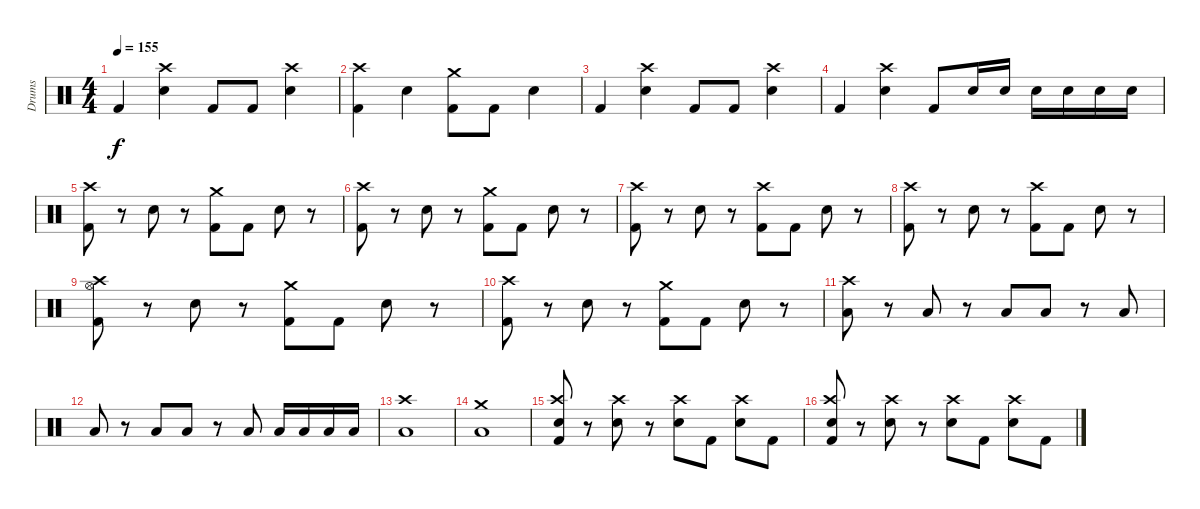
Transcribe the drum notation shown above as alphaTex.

\track ("Drums" "Drums") {instrument percussion}
\staff {score}
\articulation defaults
\ts (4 4)
\tempo 155
\clef neutral
\ks c "Kick (hit) 2".4{dy f}
("Crash high (hit)" "Snare (hit) 2").4 "Kick (hit) 2".8 "Kick (hit) 2".8 ("Crash high (hit)" "Snare (hit) 2").4 |
("Crash high (hit)" "Kick (hit) 2").4 "Snare (hit) 2".4 ("Crash medium (hit)" "Kick (hit) 2").8 "Kick (hit) 2".8 "Snare (hit) 2".4 |
"Kick (hit) 2".4 ("Crash high (hit)" "Snare (hit) 2").4 "Kick (hit) 2".8 "Kick (hit) 2".8 ("Crash high (hit)" "Snare (hit) 2").4 |
"Kick (hit) 2".4 ("Crash high (hit)" "Snare (hit) 2").4 "Kick (hit) 2".8 "Snare (hit) 2".16 "Snare (hit) 2".16 "Snare (hit) 2".16 "Snare (hit) 2".16 "Snare (hit) 2".16 "Snare (hit) 2".16 |
("Crash high (hit)" "Kick (hit) 2").8 r.8 "Snare (hit) 2".8 r.8 ("Crash medium (hit)" "Kick (hit) 2").8 "Kick (hit) 2".8 "Snare (hit) 2".8 r.8 |
("Crash high (hit)" "Kick (hit) 2").8 r.8 "Snare (hit) 2".8 r.8 ("Crash medium (hit)" "Kick (hit) 2").8 "Kick (hit) 2".8 "Snare (hit) 2".8 r.8 |
("Crash high (hit)" "Kick (hit) 2").8 r.8 "Snare (hit) 2".8 r.8 ("Crash high (hit)" "Kick (hit) 2").8 "Kick (hit) 2".8 "Snare (hit) 2".8 r.8 |
("Crash high (hit)" "Kick (hit) 2").8 r.8 "Snare (hit) 2".8 r.8 ("Crash high (hit)" "Kick (hit) 2").8 "Kick (hit) 2".8 "Snare (hit) 2".8 r.8 |
("Hi-Hat (open)" "Crash high (hit)" "Kick (hit) 2").8 r.8 "Snare (hit) 2".8 r.8 ("Crash medium (hit)" "Kick (hit) 2").8 "Kick (hit) 2".8 "Snare (hit) 2".8 r.8 |
("Crash high (hit)" "Kick (hit) 2").8 r.8 "Snare (hit) 2".8 r.8 ("Crash medium (hit)" "Kick (hit) 2").8 "Kick (hit) 2".8 "Snare (hit) 2".8 r.8 |
("Crash high (hit)" "Low Floor Tom (hit)").8 r.8 "Low Tom (hit)".8 r.8 "Low Floor Tom (hit)".8 "Low Tom (hit)".8 r.8 "Low Floor Tom (hit)".8 |
"Low Tom (hit)".8 r.8 "Low Floor Tom (hit)".8 "Low Tom (hit)".8 r.8 "Low Tom (hit)".8 "Low Floor Tom (hit)".16 "Low Floor Tom (hit)".16 "Low Floor Tom (hit)".16 "Low Floor Tom (hit)".16 |
("Crash high (hit)" "Low Tom (hit)").1 |
("Crash medium (hit)" "Low Tom (hit)").1 |
("Crash high (hit)" "Snare (hit) 2" "Kick (hit) 2").8 r.8 ("Crash high (hit)" "Snare (hit) 2").8 r.8 ("Crash high (hit)" "Snare (hit) 2").8 "Kick (hit) 2".8 ("Crash high (hit)" "Snare (hit) 2").8 "Kick (hit) 2".8 |
("Crash high (hit)" "Snare (hit) 2" "Kick (hit) 2").8 r.8 ("Crash high (hit)" "Snare (hit) 2").8 r.8 ("Crash high (hit)" "Snare (hit) 2").8 "Kick (hit) 2".8 ("Crash high (hit)" "Snare (hit) 2").8 "Kick (hit) 2".8
